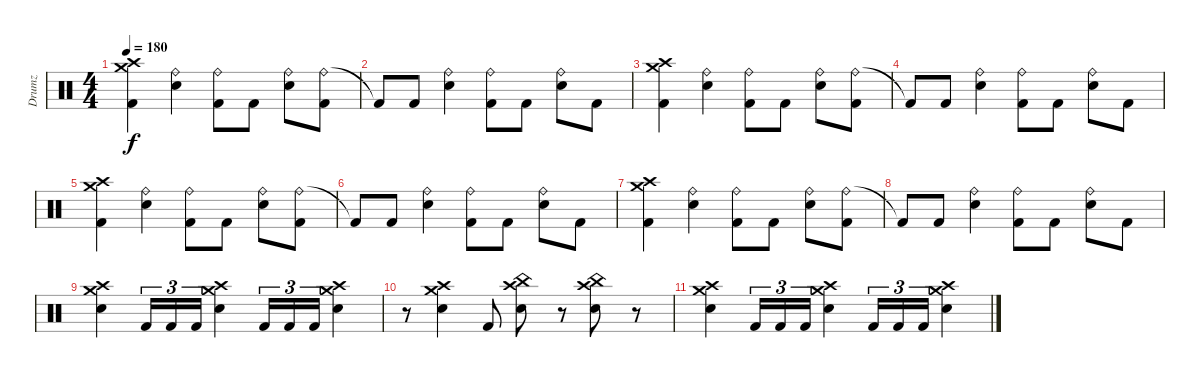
\track ("Drumz" "Drumz") {instrument percussion}
\staff {score}
\articulation defaults
\ts (4 4)
\tempo 180
\clef neutral
\ks c
("Crash high (hit)" "Crash medium (hit)" "Kick (hit) 2").4{dy f} ("Ride (bell)" "Electric Snare (hit)").4 ("Ride (bell)" "Kick (hit) 2").8 "Kick (hit) 2".8 ("Ride (bell)" "Electric Snare (hit)").8 ("Ride (bell)" "Kick (hit) 2").8 |
"Kick (hit) 2"{t}.8 "Kick (hit) 2".8 ("Ride (bell)" "Electric Snare (hit)").4 ("Ride (bell)" "Kick (hit) 2").8 "Kick (hit) 2".8 ("Ride (bell)" "Electric Snare (hit)").8 "Kick (hit) 2".8 |
("Crash high (hit)" "Crash medium (hit)" "Kick (hit) 2").4 ("Ride (bell)" "Electric Snare (hit)").4 ("Ride (bell)" "Kick (hit) 2").8 "Kick (hit) 2".8 ("Ride (bell)" "Electric Snare (hit)").8 ("Ride (bell)" "Kick (hit) 2").8 |
"Kick (hit) 2"{t}.8 "Kick (hit) 2".8 ("Ride (bell)" "Electric Snare (hit)").4 ("Ride (bell)" "Kick (hit) 2").8 "Kick (hit) 2".8 ("Ride (bell)" "Electric Snare (hit)").8 "Kick (hit) 2".8 |
("Crash high (hit)" "Crash medium (hit)" "Kick (hit) 2").4 ("Ride (bell)" "Electric Snare (hit)").4 ("Ride (bell)" "Kick (hit) 2").8 "Kick (hit) 2".8 ("Ride (bell)" "Electric Snare (hit)").8 ("Ride (bell)" "Kick (hit) 2").8 |
"Kick (hit) 2"{t}.8 "Kick (hit) 2".8 ("Ride (bell)" "Electric Snare (hit)").4 ("Ride (bell)" "Kick (hit) 2").8 "Kick (hit) 2".8 ("Ride (bell)" "Electric Snare (hit)").8 "Kick (hit) 2".8 |
("Crash high (hit)" "Crash medium (hit)" "Kick (hit) 2").4 ("Ride (bell)" "Electric Snare (hit)").4 ("Ride (bell)" "Kick (hit) 2").8 "Kick (hit) 2".8 ("Ride (bell)" "Electric Snare (hit)").8 ("Ride (bell)" "Kick (hit) 2").8 |
"Kick (hit) 2"{t}.8 "Kick (hit) 2".8 ("Ride (bell)" "Electric Snare (hit)").4 ("Ride (bell)" "Kick (hit) 2").8 "Kick (hit) 2".8 ("Ride (bell)" "Electric Snare (hit)").8 "Kick (hit) 2".8 |
("Crash medium (hit)" "Crash high (hit)" "Electric Snare (hit)").4 "Kick (hit) 2".16{tu (3 2)} "Kick (hit) 2".16{tu (3 2)} "Kick (hit) 2".16{tu (3 2)} ("Crash medium (hit)" "Crash high (hit)" "Electric Snare (hit)").4 "Kick (hit) 2".16{tu (3 2)} "Kick (hit) 2".16{tu (3 2)} "Kick (hit) 2".16{tu (3 2)} ("Crash medium (hit)" "Crash high (hit)" "Electric Snare (hit)").4 |
r.8 ("Crash medium (hit)" "Crash high (hit)" "Electric Snare (hit)").4 "Kick (hit) 2".8 ("China (hit)" "Crash high (hit)" "Electric Snare (hit)").8 r.8 ("China (hit)" "Crash high (hit)" "Electric Snare (hit)").8 r.8 |
("Crash medium (hit)" "Crash high (hit)" "Electric Snare (hit)").4 "Kick (hit) 2".16{tu (3 2)} "Kick (hit) 2".16{tu (3 2)} "Kick (hit) 2".16{tu (3 2)} ("Crash medium (hit)" "Crash high (hit)" "Electric Snare (hit)").4 "Kick (hit) 2".16{tu (3 2)} "Kick (hit) 2".16{tu (3 2)} "Kick (hit) 2".16{tu (3 2)} ("Crash medium (hit)" "Crash high (hit)" "Electric Snare (hit)").4
